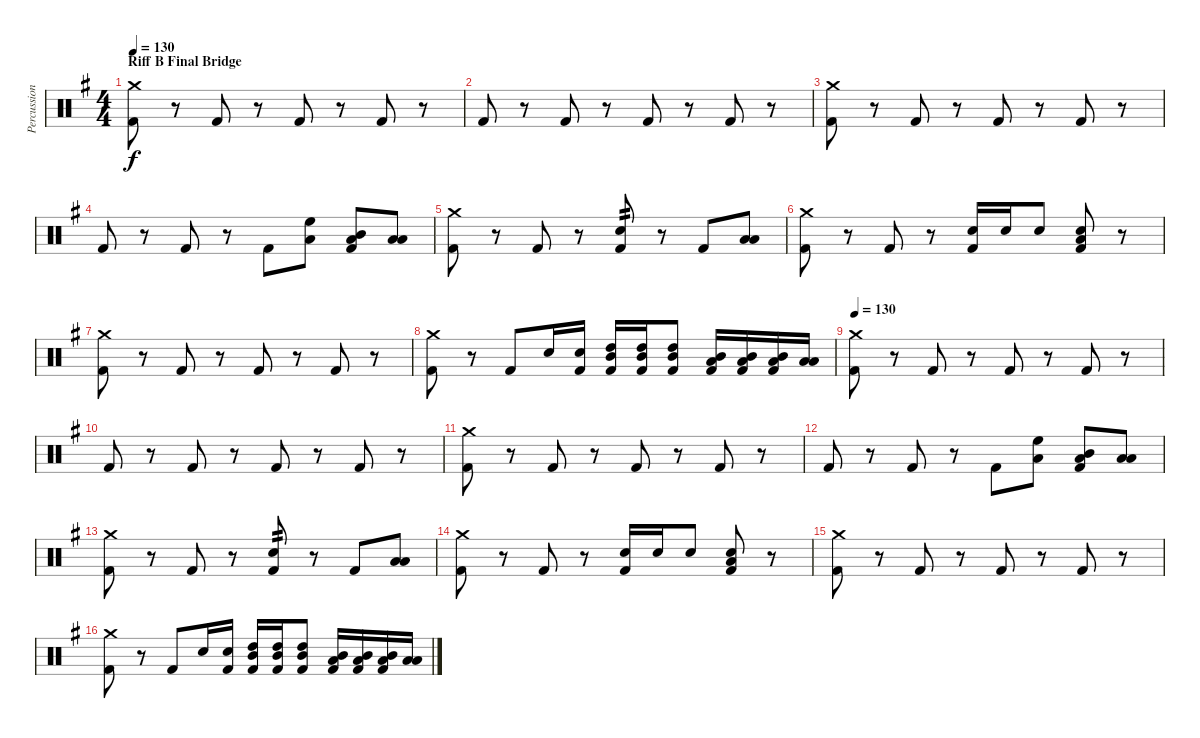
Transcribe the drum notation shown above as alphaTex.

\track ("Percussion" "Percussion") {instrument percussion}
\staff {score}
\articulation defaults
\ts (4 4)
\section ("" "Riff B Final Bridge")
\tempo 130
\clef neutral
\ks eminor
("Crash medium (hit)" "Kick (hit) 2").8{dy f} r.8 "Kick (hit) 2".8 r.8 "Kick (hit) 2".8 r.8 "Kick (hit) 2".8 r.8 |
"Kick (hit) 2".8 r.8 "Kick (hit) 2".8 r.8 "Kick (hit) 2".8 r.8 "Kick (hit) 2".8 r.8 |
("Crash medium (hit)" "Kick (hit) 2").8 r.8 "Kick (hit) 2".8 r.8 "Kick (hit) 2".8 r.8 "Kick (hit) 2".8 r.8 |
"Kick (hit) 2".8 r.8 "Kick (hit) 2".8 r.8 "Kick (hit) 2".8 ("High Floor Tom (hit)" "Low Tom (hit)").8 ("Mid Tom (hit)" "Low Tom (hit)" "Kick (hit) 2").8 ("Low Tom (hit)" "Low Tom (hit)").8 |
("Crash medium (hit)" "Kick (hit) 2").8 r.8 "Kick (hit) 2".8 r.8 ("Snare (hit) 2" "Kick (hit) 2").8{tp 2} r.8 "Kick (hit) 2".8 ("Low Tom (hit)" "Low Tom (hit)").8 |
("Crash medium (hit)" "Kick (hit) 2").8 r.8 "Kick (hit) 2".8 r.8 ("Snare (hit) 2" "Kick (hit) 2").16 "Snare (hit) 2".16 "Snare (hit) 2".8 ("Low Tom (hit)" "Snare (hit) 2" "Kick (hit) 2").8 r.8 |
("Crash medium (hit)" "Kick (hit) 2").8 r.8 "Kick (hit) 2".8 r.8 "Kick (hit) 2".8 r.8 "Kick (hit) 2".8 r.8 |
("Crash medium (hit)" "Kick (hit) 2").8 r.8 "Kick (hit) 2".8 "Snare (hit) 2".16 ("Snare (hit) 2" "Kick (hit) 2").16 ("High Tom (hit)" "Mid Tom (hit)" "Kick (hit) 2").16 ("High Tom (hit)" "Mid Tom (hit)" "Kick (hit) 2").16 ("High Tom (hit)" "Mid Tom (hit)" "Kick (hit) 2").8 ("Mid Tom (hit)" "Low Tom (hit)" "Kick (hit) 2").16 ("Mid Tom (hit)" "Low Tom (hit)" "Kick (hit) 2").16 ("Mid Tom (hit)" "Low Tom (hit)" "Kick (hit) 2").16 ("Low Tom (hit)" "Low Tom (hit)").16 |
\tempo 130
("Crash medium (hit)" "Kick (hit) 2").8 r.8 "Kick (hit) 2".8 r.8 "Kick (hit) 2".8 r.8 "Kick (hit) 2".8 r.8 |
"Kick (hit) 2".8 r.8 "Kick (hit) 2".8 r.8 "Kick (hit) 2".8 r.8 "Kick (hit) 2".8 r.8 |
("Crash medium (hit)" "Kick (hit) 2").8 r.8 "Kick (hit) 2".8 r.8 "Kick (hit) 2".8 r.8 "Kick (hit) 2".8 r.8 |
"Kick (hit) 2".8 r.8 "Kick (hit) 2".8 r.8 "Kick (hit) 2".8 ("High Floor Tom (hit)" "Low Tom (hit)").8 ("Mid Tom (hit)" "Low Tom (hit)" "Kick (hit) 2").8 ("Low Tom (hit)" "Low Tom (hit)").8 |
("Crash medium (hit)" "Kick (hit) 2").8 r.8 "Kick (hit) 2".8 r.8 ("Snare (hit) 2" "Kick (hit) 2").8{tp 2} r.8 "Kick (hit) 2".8 ("Low Tom (hit)" "Low Tom (hit)").8 |
("Crash medium (hit)" "Kick (hit) 2").8 r.8 "Kick (hit) 2".8 r.8 ("Snare (hit) 2" "Kick (hit) 2").16 "Snare (hit) 2".16 "Snare (hit) 2".8 ("Low Tom (hit)" "Snare (hit) 2" "Kick (hit) 2").8 r.8 |
("Crash medium (hit)" "Kick (hit) 2").8 r.8 "Kick (hit) 2".8 r.8 "Kick (hit) 2".8 r.8 "Kick (hit) 2".8 r.8 |
("Crash medium (hit)" "Kick (hit) 2").8 r.8 "Kick (hit) 2".8 "Snare (hit) 2".16 ("Snare (hit) 2" "Kick (hit) 2").16 ("High Tom (hit)" "Mid Tom (hit)" "Kick (hit) 2").16 ("High Tom (hit)" "Mid Tom (hit)" "Kick (hit) 2").16 ("High Tom (hit)" "Mid Tom (hit)" "Kick (hit) 2").8 ("Mid Tom (hit)" "Low Tom (hit)" "Kick (hit) 2").16 ("Mid Tom (hit)" "Low Tom (hit)" "Kick (hit) 2").16 ("Mid Tom (hit)" "Low Tom (hit)" "Kick (hit) 2").16 ("Low Tom (hit)" "Low Tom (hit)").16
